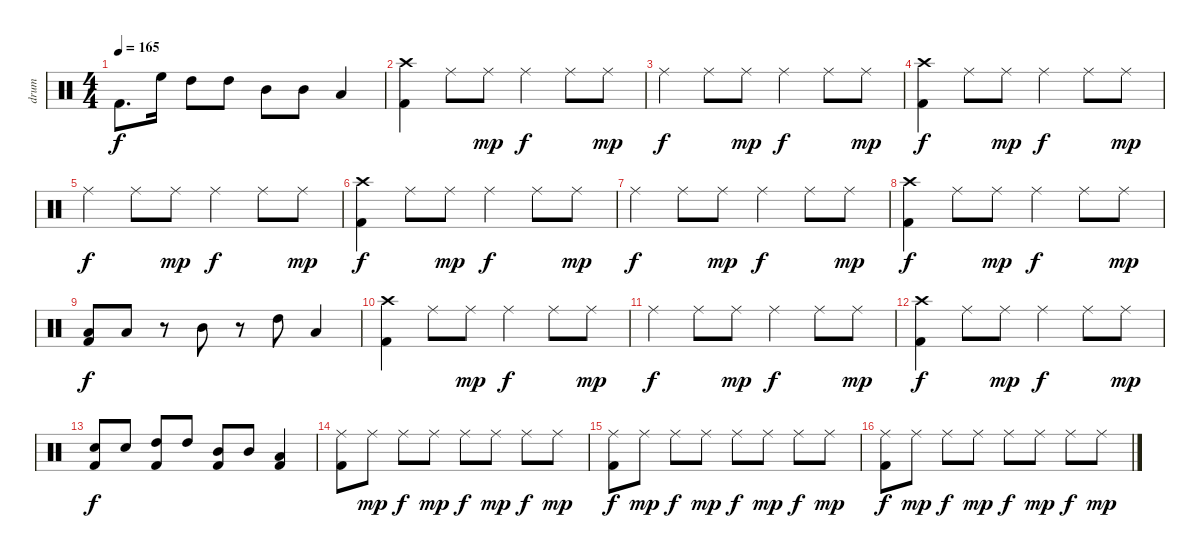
\track ("drum" "drum") {instrument percussion}
\staff {score}
\articulation defaults
\ts (4 4)
\tempo 165
\clef neutral
\ks c "Kick (hit) 2".8{d dy f} "High Floor Tom (hit)".16 "High Tom (hit)".8 "High Tom (hit)".8 "Mid Tom (hit)".8 "Mid Tom (hit)".8 "Low Tom (hit)".4
|
("Crash high (hit)" "Kick (hit) 2").4 "Ride (middle)".8 "Ride (middle)".8{dy mp} "Ride (middle)".4{dy f} "Ride (middle)".8 "Ride (middle)".8{dy mp} |
"Ride (middle)".4{dy f} "Ride (middle)".8 "Ride (middle)".8{dy mp} "Ride (middle)".4{dy f} "Ride (middle)".8 "Ride (middle)".8{dy mp} |
("Crash high (hit)" "Kick (hit) 2").4{dy f} "Ride (middle)".8 "Ride (middle)".8{dy mp} "Ride (middle)".4{dy f} "Ride (middle)".8 "Ride (middle)".8{dy mp} |
"Ride (middle)".4{dy f} "Ride (middle)".8 "Ride (middle)".8{dy mp} "Ride (middle)".4{dy f} "Ride (middle)".8 "Ride (middle)".8{dy mp} |
("Crash high (hit)" "Kick (hit) 2").4{dy f} "Ride (middle)".8 "Ride (middle)".8{dy mp} "Ride (middle)".4{dy f} "Ride (middle)".8 "Ride (middle)".8{dy mp} |
"Ride (middle)".4{dy f} "Ride (middle)".8 "Ride (middle)".8{dy mp} "Ride (middle)".4{dy f} "Ride (middle)".8 "Ride (middle)".8{dy mp} |
("Crash high (hit)" "Kick (hit) 2").4{dy f} "Ride (middle)".8 "Ride (middle)".8{dy mp} "Ride (middle)".4{dy f} "Ride (middle)".8 "Ride (middle)".8{dy mp} |
("Low Tom (hit)" "Kick (hit) 2").8{dy f} "Low Tom (hit)".8 r.8 "Mid Tom (hit)".8 r.8 "High Tom (hit)".8 "Low Tom (hit)".4 |
("Crash high (hit)" "Kick (hit) 2").4 "Ride (middle)".8 "Ride (middle)".8{dy mp} "Ride (middle)".4{dy f} "Ride (middle)".8 "Ride (middle)".8{dy mp} |
"Ride (middle)".4{dy f} "Ride (middle)".8 "Ride (middle)".8{dy mp} "Ride (middle)".4{dy f} "Ride (middle)".8 "Ride (middle)".8{dy mp} |
("Crash high (hit)" "Kick (hit) 2").4{dy f} "Ride (middle)".8 "Ride (middle)".8{dy mp} "Ride (middle)".4{dy f} "Ride (middle)".8 "Ride (middle)".8{dy mp} |
("Snare (hit) 2" "Kick (hit) 2").8{dy f} "Snare (hit) 2".8 ("High Tom (hit)" "Kick (hit) 2").8 "High Tom (hit)".8 ("Mid Tom (hit)" "Kick (hit) 2").8 "Mid Tom (hit)".8 ("Low Tom (hit)" "Kick (hit) 2").4 |
("Ride (middle)" "Kick (hit) 2").8 "Ride (middle)".8{dy mp} "Ride (middle)".8{dy f} "Ride (middle)".8{dy mp} "Ride (middle)".8{dy f} "Ride (middle)".8{dy mp} "Ride (middle)".8{dy f} "Ride (middle)".8{dy mp} |
("Ride (middle)" "Kick (hit) 2").8{dy f} "Ride (middle)".8{dy mp} "Ride (middle)".8{dy f} "Ride (middle)".8{dy mp} "Ride (middle)".8{dy f} "Ride (middle)".8{dy mp} "Ride (middle)".8{dy f} "Ride (middle)".8{dy mp} |
("Ride (middle)" "Kick (hit) 2").8{dy f} "Ride (middle)".8{dy mp} "Ride (middle)".8{dy f} "Ride (middle)".8{dy mp} "Ride (middle)".8{dy f} "Ride (middle)".8{dy mp} "Ride (middle)".8{dy f} "Ride (middle)".8{dy mp}
